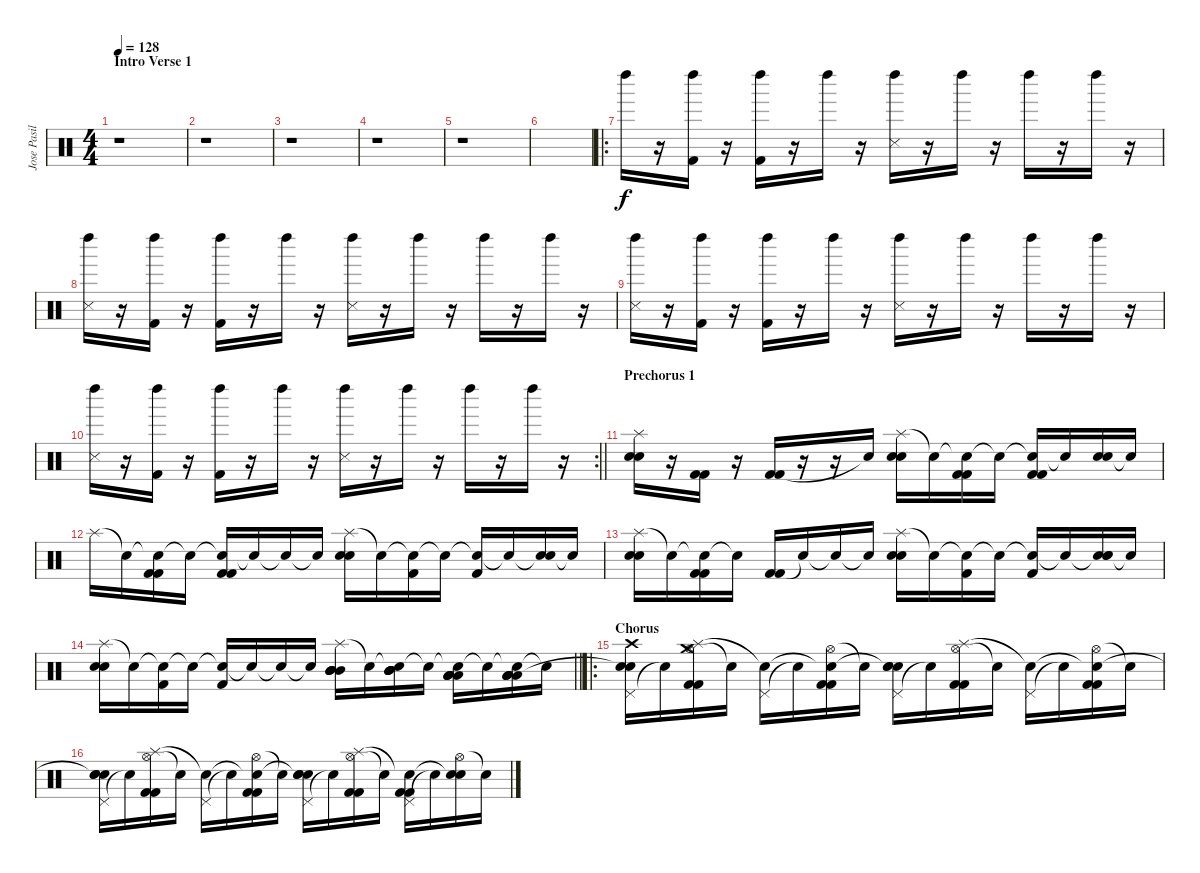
\track ("Jose Pasillas" "Jose Pasil") {instrument percussion}
\staff {score}
\articulation defaults
\ts (4 4)
\section ("" "Intro Verse 1")
\tempo 128
\clef neutral
\ks c
r.1{dy f} |
r.1 |
r.1 |
r.1 |
r.1 |
|
\ro "Left Maraca (hit)".16
r.16 ("Left Maraca (hit)" "Kick (hit) 2").16 r.16 ("Left Maraca (hit)" "Kick (hit) 2").16 r.16 "Left Maraca (hit)".16 r.16 ("Metronome (hit)" "Left Maraca (hit)").16 r.16 "Left Maraca (hit)".16 r.16 "Left Maraca (hit)".16 r.16 "Left Maraca (hit)".16 r.16 |
("Left Maraca (hit)" "Metronome (hit)").16 r.16 ("Left Maraca (hit)" "Kick (hit) 2").16 r.16 ("Left Maraca (hit)" "Kick (hit) 2").16 r.16 "Left Maraca (hit)".16 r.16 ("Metronome (hit)" "Left Maraca (hit)").16 r.16 "Left Maraca (hit)".16 r.16 "Left Maraca (hit)".16 r.16 "Left Maraca (hit)".16 r.16 |
("Left Maraca (hit)" "Metronome (hit)").16 r.16 ("Left Maraca (hit)" "Kick (hit) 2").16 r.16 ("Left Maraca (hit)" "Kick (hit) 2").16 r.16 "Left Maraca (hit)".16 r.16 ("Metronome (hit)" "Left Maraca (hit)").16 r.16 "Left Maraca (hit)".16 r.16 "Left Maraca (hit)".16 r.16 "Left Maraca (hit)".16 r.16 |
\rc 2
\barLineRight lightlight
("Left Maraca (hit)" "Metronome (hit)").16 r.16 ("Left Maraca (hit)" "Kick (hit) 2").16 r.16 ("Left Maraca (hit)" "Kick (hit) 2").16 r.16 "Left Maraca (hit)".16 r.16 ("Metronome (hit)" "Left Maraca (hit)").16 r.16 "Left Maraca (hit)".16 r.16 "Left Maraca (hit)".16 r.16 "Left Maraca (hit)".16 r.16 |
\section ("" "Prechorus 1")
("Splash (hit)" "Electric Snare (hit)" "Electric Snare (hit)").16 r.16 ("Kick (hit) 2" "Kick (hit) 2").16 r.16 ("Kick (hit) 2" "Kick (hit) 2").16 r.16 r.16 "Snare (hit)"{t}.16 ("Splash (hit)" "Electric Snare (hit)" "Electric Snare (hit)").16 "Snare (hit)"{t}.16 ("Snare (hit)"{t} "Kick (hit) 2" "Kick (hit) 2").16 "Snare (hit)"{t}.16 ("Snare (hit)"{t} "Kick (hit) 2" "Kick (hit) 2").16 "Snare (hit)"{t}.16 ("Electric Snare (hit)" "Electric Snare (hit)").16 "Snare (hit)"{t}.16 |
"Splash (hit)".16 "Snare (hit)"{t}.16 ("Snare (hit)"{t} "Kick (hit) 2" "Kick (hit) 2").16 "Snare (hit)"{t}.16 ("Snare (hit)"{t} "Kick (hit) 2" "Kick (hit) 2").16 "Snare (hit)"{t}.16 "Snare (hit)"{t}.16 "Snare (hit)"{t}.16 ("Splash (hit)" "Electric Snare (hit)" "Electric Snare (hit)").16 "Snare (hit)"{t}.16 ("Snare (hit)"{t} "Kick (hit) 2").16 "Snare (hit)"{t}.16 ("Snare (hit)"{t} "Kick (hit) 2").16 "Snare (hit)"{t}.16 ("Snare (hit)"{t} "Electric Snare (hit)").16 "Snare (hit)"{t}.16 |
("Splash (hit)" "Electric Snare (hit)" "Electric Snare (hit)").16 "Snare (hit)"{t}.16 ("Snare (hit)"{t} "Kick (hit) 2" "Kick (hit) 2").16 "Snare (hit)"{t}.16 ("Kick (hit) 2" "Kick (hit) 2").16 "Snare (hit)"{t}.16 "Snare (hit)"{t}.16 "Snare (hit)"{t}.16 ("Splash (hit)" "Electric Snare (hit)" "Electric Snare (hit)").16 "Snare (hit)"{t}.16 ("Snare (hit)"{t} "Kick (hit) 2").16 "Snare (hit)"{t}.16 ("Snare (hit)"{t} "Kick (hit) 2").16 "Snare (hit)"{t}.16 ("Snare (hit)"{t} "Electric Snare (hit)" "Electric Snare (hit)").16 "Snare (hit)"{t}.16 |
\barLineRight lightlight
("Splash (hit)" "Electric Snare (hit)" "Electric Snare (hit)").16 "Snare (hit)"{t}.16 ("Snare (hit)"{t} "Kick (hit) 2").16 "Snare (hit)"{t}.16 ("Snare (hit)"{t} "Kick (hit) 2").16 "Snare (hit)"{t}.16 "Snare (hit)"{t}.16 "Snare (hit)"{t}.16 ("Splash (hit)" "Mid Tom (hit)" "Mid Tom (hit)" "Mid Tom (hit)" "Mid Tom (hit)").16 "Snare (hit)"{t}.16 ("Snare (hit)"{t} "Mid Tom (hit)" "Mid Tom (hit)" "Mid Tom (hit)" "Mid Tom (hit)").16 "Snare (hit)"{t}.16 ("Snare (hit)"{t} "Low Tom (hit)" "Low Tom (hit)" "Low Tom (hit)" "Low Tom (hit)").16 "Snare (hit)"{t}.16 ("Snare (hit)"{t} "Low Tom (hit)" "Low Tom (hit)" "Low Tom (hit)" "Low Tom (hit)").16 "Snare (hit)"{t}.16 |
\ro
\section ("" "Chorus")
("Pedal Hi-Hat (hit)" "Snare (hit)"{t} "Electric Snare (hit)" "Crash high (hit)").16 "Snare (hit)"{t}.16 ("Hi-Hat (open)" "Splash (hit)" "Kick (hit) 2" "Kick (hit) 2" "Crash medium (hit)").16 "Snare (hit)"{t}.16 ("Pedal Hi-Hat (hit)" "Snare (hit)"{t}).16 "Snare (hit)"{t}.16 ("Hi-Hat (open)" "Snare (hit)"{t} "Kick (hit) 2" "Kick (hit) 2").16 "Snare (hit)"{t}.16 ("Pedal Hi-Hat (hit)" "Snare (hit)"{t} "Electric Snare (hit)" "Electric Snare (hit)").16 "Snare (hit)"{t}.16 ("Hi-Hat (open)" "Splash (hit)" "Kick (hit) 2" "Kick (hit) 2").16 "Snare (hit)"{t}.16 ("Pedal Hi-Hat (hit)" "Snare (hit)"{t}).16 "Snare (hit)"{t}.16 ("Hi-Hat (open)" "Snare (hit)"{t} "Kick (hit) 2" "Kick (hit) 2").16 "Snare (hit)"{t}.16 |
("Pedal Hi-Hat (hit)" "Snare (hit)"{t} "Electric Snare (hit)" "Electric Snare (hit)").16 "Snare (hit)"{t}.16 ("Hi-Hat (open)" "Splash (hit)" "Kick (hit) 2" "Kick (hit) 2").16 "Snare (hit)"{t}.16 ("Pedal Hi-Hat (hit)" "Snare (hit)"{t}).16 "Snare (hit)"{t}.16 ("Hi-Hat (open)" "Snare (hit)"{t} "Kick (hit) 2" "Kick (hit) 2").16 "Snare (hit)"{t}.16 ("Pedal Hi-Hat (hit)" "Snare (hit)"{t} "Electric Snare (hit)" "Electric Snare (hit)").16 "Snare (hit)"{t}.16 ("Hi-Hat (open)" "Splash (hit)" "Kick (hit) 2" "Kick (hit) 2").16 "Snare (hit)"{t}.16 ("Pedal Hi-Hat (hit)" "Snare (hit)"{t} "Kick (hit) 2" "Kick (hit) 2").16 "Snare (hit)"{t}.16 ("Hi-Hat (open)" "Snare (hit)"{t} "Electric Snare (hit)").16 "Snare (hit)"{t}.16
